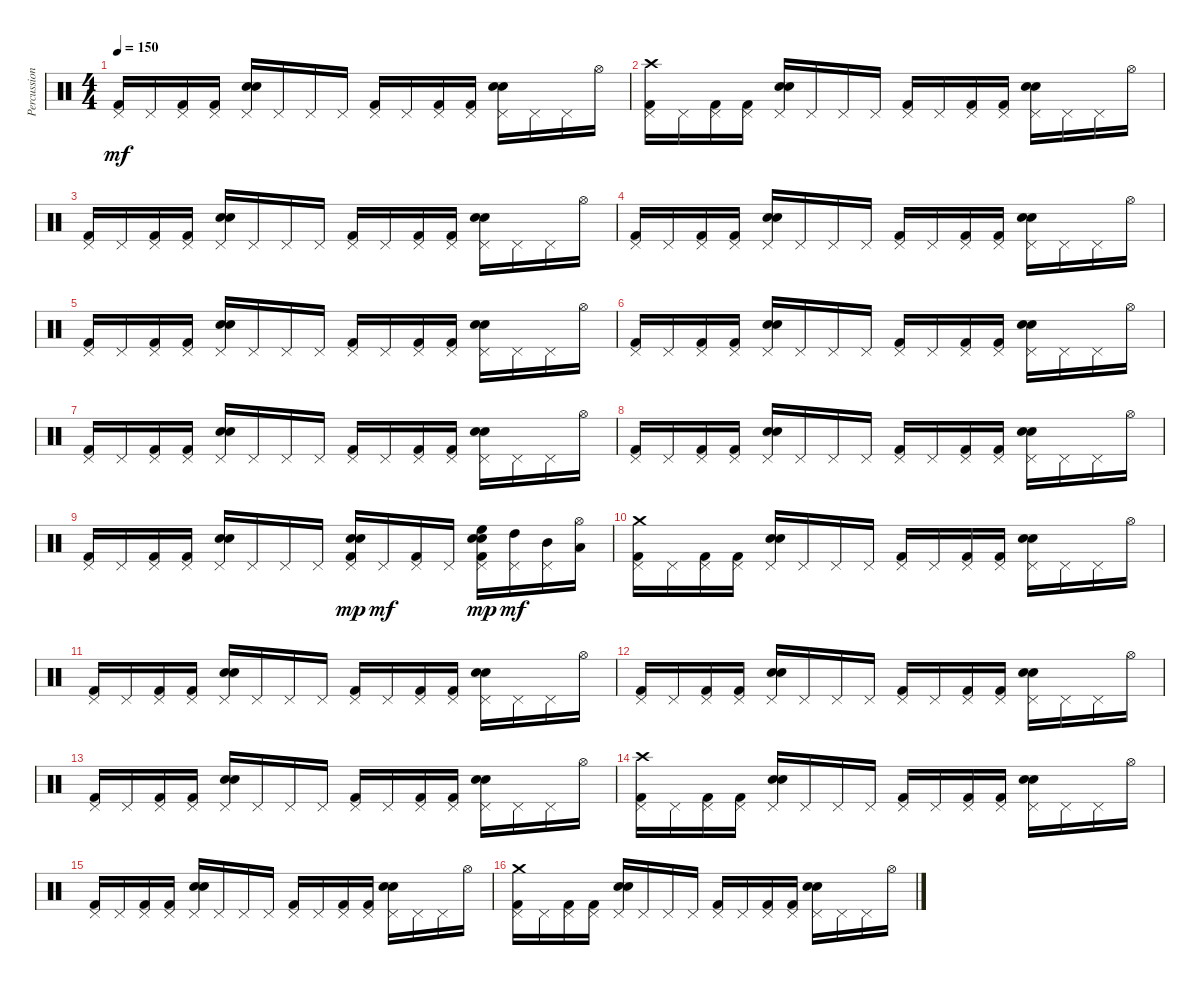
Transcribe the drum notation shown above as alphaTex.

\track ("Percussion (Power Kit)" "Percussion") {instrument percussion}
\staff {score}
\articulation defaults
\ts (4 4)
\tempo 150
\clef neutral
\ks c
("Kick (hit) 2" "Pedal Hi-Hat (hit)").16{dy mf} "Pedal Hi-Hat (hit)".16 ("Pedal Hi-Hat (hit)" "Kick (hit) 2").16 ("Pedal Hi-Hat (hit)" "Kick (hit) 2").16 ("Electric Snare (hit)" "Snare (hit) 2" "Pedal Hi-Hat (hit)").16 "Pedal Hi-Hat (hit)".16 "Pedal Hi-Hat (hit)".16 "Pedal Hi-Hat (hit)".16 ("Kick (hit) 2" "Pedal Hi-Hat (hit)").16 "Pedal Hi-Hat (hit)".16 ("Pedal Hi-Hat (hit)" "Kick (hit) 2").16 ("Pedal Hi-Hat (hit)" "Kick (hit) 2").16 ("Electric Snare (hit)" "Snare (hit) 2" "Pedal Hi-Hat (hit)").16 "Pedal Hi-Hat (hit)".16 "Pedal Hi-Hat (hit)".16 "Hi-Hat (open)".16 |
("Kick (hit) 2" "Pedal Hi-Hat (hit)" "Crash high (hit)").16 "Pedal Hi-Hat (hit)".16 ("Pedal Hi-Hat (hit)" "Kick (hit) 2").16 ("Pedal Hi-Hat (hit)" "Kick (hit) 2").16 ("Electric Snare (hit)" "Snare (hit) 2" "Pedal Hi-Hat (hit)").16 "Pedal Hi-Hat (hit)".16 "Pedal Hi-Hat (hit)".16 "Pedal Hi-Hat (hit)".16 ("Kick (hit) 2" "Pedal Hi-Hat (hit)").16 "Pedal Hi-Hat (hit)".16 ("Pedal Hi-Hat (hit)" "Kick (hit) 2").16 ("Pedal Hi-Hat (hit)" "Kick (hit) 2").16 ("Electric Snare (hit)" "Snare (hit) 2" "Pedal Hi-Hat (hit)").16 "Pedal Hi-Hat (hit)".16 "Pedal Hi-Hat (hit)".16 "Hi-Hat (open)".16 |
("Kick (hit) 2" "Pedal Hi-Hat (hit)").16 "Pedal Hi-Hat (hit)".16 ("Pedal Hi-Hat (hit)" "Kick (hit) 2").16 ("Pedal Hi-Hat (hit)" "Kick (hit) 2").16 ("Electric Snare (hit)" "Snare (hit) 2" "Pedal Hi-Hat (hit)").16 "Pedal Hi-Hat (hit)".16 "Pedal Hi-Hat (hit)".16 "Pedal Hi-Hat (hit)".16 ("Kick (hit) 2" "Pedal Hi-Hat (hit)").16 "Pedal Hi-Hat (hit)".16 ("Pedal Hi-Hat (hit)" "Kick (hit) 2").16 ("Pedal Hi-Hat (hit)" "Kick (hit) 2").16 ("Electric Snare (hit)" "Snare (hit) 2" "Pedal Hi-Hat (hit)").16 "Pedal Hi-Hat (hit)".16 "Pedal Hi-Hat (hit)".16 "Hi-Hat (open)".16 |
("Kick (hit) 2" "Pedal Hi-Hat (hit)").16 "Pedal Hi-Hat (hit)".16 ("Pedal Hi-Hat (hit)" "Kick (hit) 2").16 ("Pedal Hi-Hat (hit)" "Kick (hit) 2").16 ("Electric Snare (hit)" "Snare (hit) 2" "Pedal Hi-Hat (hit)").16 "Pedal Hi-Hat (hit)".16 "Pedal Hi-Hat (hit)".16 "Pedal Hi-Hat (hit)".16 ("Kick (hit) 2" "Pedal Hi-Hat (hit)").16 "Pedal Hi-Hat (hit)".16 ("Pedal Hi-Hat (hit)" "Kick (hit) 2").16 ("Pedal Hi-Hat (hit)" "Kick (hit) 2").16 ("Electric Snare (hit)" "Snare (hit) 2" "Pedal Hi-Hat (hit)").16 "Pedal Hi-Hat (hit)".16 "Pedal Hi-Hat (hit)".16 "Hi-Hat (open)".16 |
("Kick (hit) 2" "Pedal Hi-Hat (hit)").16 "Pedal Hi-Hat (hit)".16 ("Pedal Hi-Hat (hit)" "Kick (hit) 2").16 ("Pedal Hi-Hat (hit)" "Kick (hit) 2").16 ("Electric Snare (hit)" "Snare (hit) 2" "Pedal Hi-Hat (hit)").16 "Pedal Hi-Hat (hit)".16 "Pedal Hi-Hat (hit)".16 "Pedal Hi-Hat (hit)".16 ("Kick (hit) 2" "Pedal Hi-Hat (hit)").16 "Pedal Hi-Hat (hit)".16 ("Pedal Hi-Hat (hit)" "Kick (hit) 2").16 ("Pedal Hi-Hat (hit)" "Kick (hit) 2").16 ("Electric Snare (hit)" "Snare (hit) 2" "Pedal Hi-Hat (hit)").16 "Pedal Hi-Hat (hit)".16 "Pedal Hi-Hat (hit)".16 "Hi-Hat (open)".16 |
("Kick (hit) 2" "Pedal Hi-Hat (hit)").16 "Pedal Hi-Hat (hit)".16 ("Pedal Hi-Hat (hit)" "Kick (hit) 2").16 ("Pedal Hi-Hat (hit)" "Kick (hit) 2").16 ("Electric Snare (hit)" "Snare (hit) 2" "Pedal Hi-Hat (hit)").16 "Pedal Hi-Hat (hit)".16 "Pedal Hi-Hat (hit)".16 "Pedal Hi-Hat (hit)".16 ("Kick (hit) 2" "Pedal Hi-Hat (hit)").16 "Pedal Hi-Hat (hit)".16 ("Pedal Hi-Hat (hit)" "Kick (hit) 2").16 ("Pedal Hi-Hat (hit)" "Kick (hit) 2").16 ("Electric Snare (hit)" "Snare (hit) 2" "Pedal Hi-Hat (hit)").16 "Pedal Hi-Hat (hit)".16 "Pedal Hi-Hat (hit)".16 "Hi-Hat (open)".16 |
("Kick (hit) 2" "Pedal Hi-Hat (hit)").16 "Pedal Hi-Hat (hit)".16 ("Pedal Hi-Hat (hit)" "Kick (hit) 2").16 ("Pedal Hi-Hat (hit)" "Kick (hit) 2").16 ("Electric Snare (hit)" "Snare (hit) 2" "Pedal Hi-Hat (hit)").16 "Pedal Hi-Hat (hit)".16 "Pedal Hi-Hat (hit)".16 "Pedal Hi-Hat (hit)".16 ("Kick (hit) 2" "Pedal Hi-Hat (hit)").16 "Pedal Hi-Hat (hit)".16 ("Pedal Hi-Hat (hit)" "Kick (hit) 2").16 ("Pedal Hi-Hat (hit)" "Kick (hit) 2").16 ("Electric Snare (hit)" "Snare (hit) 2" "Pedal Hi-Hat (hit)").16 "Pedal Hi-Hat (hit)".16 "Pedal Hi-Hat (hit)".16 "Hi-Hat (open)".16 |
("Kick (hit) 2" "Pedal Hi-Hat (hit)").16 "Pedal Hi-Hat (hit)".16 ("Pedal Hi-Hat (hit)" "Kick (hit) 2").16 ("Pedal Hi-Hat (hit)" "Kick (hit) 2").16 ("Electric Snare (hit)" "Snare (hit) 2" "Pedal Hi-Hat (hit)").16 "Pedal Hi-Hat (hit)".16 "Pedal Hi-Hat (hit)".16 "Pedal Hi-Hat (hit)".16 ("Kick (hit) 2" "Pedal Hi-Hat (hit)").16 "Pedal Hi-Hat (hit)".16 ("Pedal Hi-Hat (hit)" "Kick (hit) 2").16 ("Pedal Hi-Hat (hit)" "Kick (hit) 2").16 ("Electric Snare (hit)" "Snare (hit) 2" "Pedal Hi-Hat (hit)").16 "Pedal Hi-Hat (hit)".16 "Pedal Hi-Hat (hit)".16 "Hi-Hat (open)".16 |
("Kick (hit) 2" "Pedal Hi-Hat (hit)").16 "Pedal Hi-Hat (hit)".16 ("Pedal Hi-Hat (hit)" "Kick (hit) 2").16 ("Pedal Hi-Hat (hit)" "Kick (hit) 2").16 ("Electric Snare (hit)" "Snare (hit) 2" "Pedal Hi-Hat (hit)").16 "Pedal Hi-Hat (hit)".16 "Pedal Hi-Hat (hit)".16 "Pedal Hi-Hat (hit)".16 ("Pedal Hi-Hat (hit)" "Electric Snare (hit)" "Kick (hit) 2" "Snare (hit) 2").16{dy mp} "Pedal Hi-Hat (hit)".16{dy mf} ("Pedal Hi-Hat (hit)" "Kick (hit) 2").16 "Pedal Hi-Hat (hit)".16 ("Pedal Hi-Hat (hit)" "Kick (hit) 2" "Electric Snare (hit)" "Snare (hit) 2" "High Floor Tom (hit)").16{dy mp} ("Pedal Hi-Hat (hit)" "High Tom (hit)").16{dy mf} ("Pedal Hi-Hat (hit)" "Mid Tom (hit)").16 ("Hi-Hat (open)" "Low Tom (hit)").16 |
("Kick (hit) 2" "Pedal Hi-Hat (hit)" "Crash medium (hit)").16 "Pedal Hi-Hat (hit)".16 ("Pedal Hi-Hat (hit)" "Kick (hit) 2").16 ("Pedal Hi-Hat (hit)" "Kick (hit) 2").16 ("Electric Snare (hit)" "Snare (hit) 2" "Pedal Hi-Hat (hit)").16 "Pedal Hi-Hat (hit)".16 "Pedal Hi-Hat (hit)".16 "Pedal Hi-Hat (hit)".16 ("Kick (hit) 2" "Pedal Hi-Hat (hit)").16{volume 15} "Pedal Hi-Hat (hit)".16 ("Pedal Hi-Hat (hit)" "Kick (hit) 2").16 ("Pedal Hi-Hat (hit)" "Kick (hit) 2").16 ("Electric Snare (hit)" "Snare (hit) 2" "Pedal Hi-Hat (hit)").16 "Pedal Hi-Hat (hit)".16 "Pedal Hi-Hat (hit)".16 "Hi-Hat (open)".16 |
("Kick (hit) 2" "Pedal Hi-Hat (hit)").16{volume 14} "Pedal Hi-Hat (hit)".16 ("Pedal Hi-Hat (hit)" "Kick (hit) 2").16 ("Pedal Hi-Hat (hit)" "Kick (hit) 2").16 ("Electric Snare (hit)" "Snare (hit) 2" "Pedal Hi-Hat (hit)").16 "Pedal Hi-Hat (hit)".16 "Pedal Hi-Hat (hit)".16 "Pedal Hi-Hat (hit)".16 ("Kick (hit) 2" "Pedal Hi-Hat (hit)").16{volume 13} "Pedal Hi-Hat (hit)".16 ("Pedal Hi-Hat (hit)" "Kick (hit) 2").16 ("Pedal Hi-Hat (hit)" "Kick (hit) 2").16 ("Electric Snare (hit)" "Snare (hit) 2" "Pedal Hi-Hat (hit)").16 "Pedal Hi-Hat (hit)".16 "Pedal Hi-Hat (hit)".16 "Hi-Hat (open)".16 |
("Kick (hit) 2" "Pedal Hi-Hat (hit)").16{volume 12} "Pedal Hi-Hat (hit)".16 ("Pedal Hi-Hat (hit)" "Kick (hit) 2").16 ("Pedal Hi-Hat (hit)" "Kick (hit) 2").16 ("Electric Snare (hit)" "Snare (hit) 2" "Pedal Hi-Hat (hit)").16 "Pedal Hi-Hat (hit)".16 "Pedal Hi-Hat (hit)".16 "Pedal Hi-Hat (hit)".16 ("Kick (hit) 2" "Pedal Hi-Hat (hit)").16{volume 11} "Pedal Hi-Hat (hit)".16 ("Pedal Hi-Hat (hit)" "Kick (hit) 2").16 ("Pedal Hi-Hat (hit)" "Kick (hit) 2").16 ("Electric Snare (hit)" "Snare (hit) 2" "Pedal Hi-Hat (hit)").16 "Pedal Hi-Hat (hit)".16 "Pedal Hi-Hat (hit)".16 "Hi-Hat (open)".16 |
("Kick (hit) 2" "Pedal Hi-Hat (hit)").16{volume 10} "Pedal Hi-Hat (hit)".16 ("Pedal Hi-Hat (hit)" "Kick (hit) 2").16 ("Pedal Hi-Hat (hit)" "Kick (hit) 2").16 ("Electric Snare (hit)" "Snare (hit) 2" "Pedal Hi-Hat (hit)").16 "Pedal Hi-Hat (hit)".16 "Pedal Hi-Hat (hit)".16 "Pedal Hi-Hat (hit)".16 ("Kick (hit) 2" "Pedal Hi-Hat (hit)").16{volume 9} "Pedal Hi-Hat (hit)".16 ("Pedal Hi-Hat (hit)" "Kick (hit) 2").16 ("Pedal Hi-Hat (hit)" "Kick (hit) 2").16 ("Electric Snare (hit)" "Snare (hit) 2" "Pedal Hi-Hat (hit)").16 "Pedal Hi-Hat (hit)".16 "Pedal Hi-Hat (hit)".16 "Hi-Hat (open)".16 |
("Kick (hit) 2" "Pedal Hi-Hat (hit)" "Crash high (hit)").16{volume 8} "Pedal Hi-Hat (hit)".16 ("Pedal Hi-Hat (hit)" "Kick (hit) 2").16 ("Pedal Hi-Hat (hit)" "Kick (hit) 2").16 ("Electric Snare (hit)" "Snare (hit) 2" "Pedal Hi-Hat (hit)").16 "Pedal Hi-Hat (hit)".16 "Pedal Hi-Hat (hit)".16 "Pedal Hi-Hat (hit)".16 ("Kick (hit) 2" "Pedal Hi-Hat (hit)").16{volume 7} "Pedal Hi-Hat (hit)".16 ("Pedal Hi-Hat (hit)" "Kick (hit) 2").16 ("Pedal Hi-Hat (hit)" "Kick (hit) 2").16 ("Electric Snare (hit)" "Snare (hit) 2" "Pedal Hi-Hat (hit)").16 "Pedal Hi-Hat (hit)".16 "Pedal Hi-Hat (hit)".16 "Hi-Hat (open)".16 |
("Kick (hit) 2" "Pedal Hi-Hat (hit)").16{volume 6} "Pedal Hi-Hat (hit)".16 ("Pedal Hi-Hat (hit)" "Kick (hit) 2").16 ("Pedal Hi-Hat (hit)" "Kick (hit) 2").16 ("Electric Snare (hit)" "Snare (hit) 2" "Pedal Hi-Hat (hit)").16 "Pedal Hi-Hat (hit)".16 "Pedal Hi-Hat (hit)".16 "Pedal Hi-Hat (hit)".16 ("Kick (hit) 2" "Pedal Hi-Hat (hit)").16{volume 5} "Pedal Hi-Hat (hit)".16 ("Pedal Hi-Hat (hit)" "Kick (hit) 2").16 ("Pedal Hi-Hat (hit)" "Kick (hit) 2").16 ("Electric Snare (hit)" "Snare (hit) 2" "Pedal Hi-Hat (hit)").16 "Pedal Hi-Hat (hit)".16 "Pedal Hi-Hat (hit)".16 "Hi-Hat (open)".16 |
("Kick (hit) 2" "Pedal Hi-Hat (hit)" "Crash medium (hit)").16{volume 4} "Pedal Hi-Hat (hit)".16 ("Pedal Hi-Hat (hit)" "Kick (hit) 2").16 ("Pedal Hi-Hat (hit)" "Kick (hit) 2").16 ("Electric Snare (hit)" "Snare (hit) 2" "Pedal Hi-Hat (hit)").16 "Pedal Hi-Hat (hit)".16 "Pedal Hi-Hat (hit)".16 "Pedal Hi-Hat (hit)".16{volume 3} ("Kick (hit) 2" "Pedal Hi-Hat (hit)").16 "Pedal Hi-Hat (hit)".16 ("Pedal Hi-Hat (hit)" "Kick (hit) 2").16 ("Pedal Hi-Hat (hit)" "Kick (hit) 2").16 ("Electric Snare (hit)" "Snare (hit) 2" "Pedal Hi-Hat (hit)").16 "Pedal Hi-Hat (hit)".16 "Pedal Hi-Hat (hit)".16 "Hi-Hat (open)".16{volume 2}
